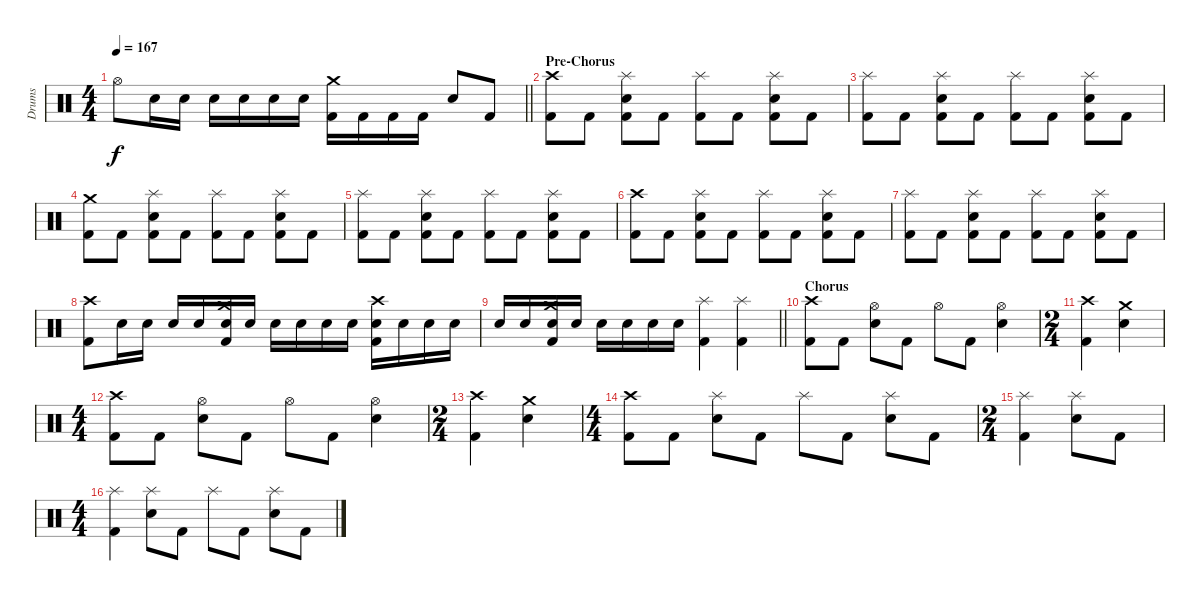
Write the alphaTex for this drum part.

\track ("Drums" "Drums") {instrument percussion}
\staff {score}
\articulation defaults
\ts (4 4)
\tempo 167
\clef neutral
\barLineRight lightlight
\ks c "Hi-Hat (open)".8{dy f} "Snare (hit) 2".16 "Snare (hit) 2".16 "Snare (hit) 2".16 "Snare (hit) 2".16 "Snare (hit) 2".16 "Snare (hit) 2".16
("Crash medium (hit)" "Kick (hit) 2").16 "Kick (hit) 2".16 "Kick (hit) 2".16 "Kick (hit) 2".16 "Snare (hit) 2".8 "Kick (hit) 2".8 |
\section ("" "Pre-Chorus")
("Crash high (hit)" "Kick (hit) 2").8 "Kick (hit) 2".8 ("Splash (hit)" "Snare (hit) 2" "Kick (hit) 2").8 "Kick (hit) 2".8 ("Splash (hit)" "Kick (hit) 2").8 "Kick (hit) 2".8 ("Splash (hit)" "Snare (hit) 2" "Kick (hit) 2").8 "Kick (hit) 2".8 |
("Splash (hit)" "Kick (hit) 2").8 "Kick (hit) 2".8 ("Splash (hit)" "Snare (hit) 2" "Kick (hit) 2").8 "Kick (hit) 2".8 ("Splash (hit)" "Kick (hit) 2").8 "Kick (hit) 2".8 ("Splash (hit)" "Snare (hit) 2" "Kick (hit) 2").8 "Kick (hit) 2".8 |
("Crash medium (hit)" "Kick (hit) 2").8 "Kick (hit) 2".8 ("Splash (hit)" "Snare (hit) 2" "Kick (hit) 2").8 "Kick (hit) 2".8 ("Splash (hit)" "Kick (hit) 2").8 "Kick (hit) 2".8 ("Splash (hit)" "Snare (hit) 2" "Kick (hit) 2").8 "Kick (hit) 2".8 |
("Splash (hit)" "Kick (hit) 2").8 "Kick (hit) 2".8 ("Splash (hit)" "Snare (hit) 2" "Kick (hit) 2").8 "Kick (hit) 2".8 ("Splash (hit)" "Kick (hit) 2").8 "Kick (hit) 2".8 ("Splash (hit)" "Snare (hit) 2" "Kick (hit) 2").8 "Kick (hit) 2".8 |
("Crash high (hit)" "Kick (hit) 2").8 "Kick (hit) 2".8 ("Splash (hit)" "Snare (hit) 2" "Kick (hit) 2").8 "Kick (hit) 2".8 ("Splash (hit)" "Kick (hit) 2").8 "Kick (hit) 2".8 ("Splash (hit)" "Snare (hit) 2" "Kick (hit) 2").8 "Kick (hit) 2".8 |
("Splash (hit)" "Kick (hit) 2").8 "Kick (hit) 2".8 ("Splash (hit)" "Snare (hit) 2" "Kick (hit) 2").8 "Kick (hit) 2".8 ("Splash (hit)" "Kick (hit) 2").8 "Kick (hit) 2".8 ("Splash (hit)" "Snare (hit) 2" "Kick (hit) 2").8 "Kick (hit) 2".8 |
("Crash high (hit)" "Kick (hit) 2").8 "Snare (hit) 2".16 "Snare (hit) 2".16 "Snare (hit) 2".16 "Snare (hit) 2".16 ("Crash medium (hit)" "Snare (hit) 2" "Kick (hit) 2").16 "Snare (hit) 2".16 "Snare (hit) 2".16 "Snare (hit) 2".16 "Snare (hit) 2".16 "Snare (hit) 2".16 ("Crash high (hit)" "Snare (hit) 2" "Kick (hit) 2").16 "Snare (hit) 2".16 "Snare (hit) 2".16 "Snare (hit) 2".16 |
\barLineRight lightlight "Snare (hit) 2".16 "Snare (hit) 2".16
("Crash medium (hit)" "Snare (hit) 2" "Kick (hit) 2").16 "Snare (hit) 2".16 "Snare (hit) 2".16 "Snare (hit) 2".16 "Snare (hit) 2".16 "Snare (hit) 2".16 ("Splash (hit)" "Kick (hit) 2").4 ("Splash (hit)" "Kick (hit) 2").4 |
\section ("" "Chorus")
("Crash high (hit)" "Kick (hit) 2").8 "Kick (hit) 2".8 ("Hi-Hat (open)" "Snare (hit) 2").8 "Kick (hit) 2".8 "Hi-Hat (open)".8 "Kick (hit) 2".8 ("Hi-Hat (open)" "Snare (hit) 2").4 |
\ts (2 4)
("Crash high (hit)" "Kick (hit) 2").4 ("Crash medium (hit)" "Snare (hit) 2").4 |
\ts (4 4)
("Crash high (hit)" "Kick (hit) 2").8 "Kick (hit) 2".8 ("Hi-Hat (open)" "Snare (hit) 2").8 "Kick (hit) 2".8 "Hi-Hat (open)".8 "Kick (hit) 2".8 ("Hi-Hat (open)" "Snare (hit) 2").4 |
\ts (2 4)
("Crash high (hit)" "Kick (hit) 2").4 ("Crash medium (hit)" "Snare (hit) 2").4 |
\ts (4 4)
("Crash high (hit)" "Kick (hit) 2").8 "Kick (hit) 2".8 ("Splash (hit)" "Snare (hit) 2").8 "Kick (hit) 2".8 "Splash (hit)".8 "Kick (hit) 2".8 ("Splash (hit)" "Snare (hit) 2").8 "Kick (hit) 2".8 |
\ts (2 4)
("Splash (hit)" "Kick (hit) 2").4 ("Splash (hit)" "Snare (hit) 2").8 "Kick (hit) 2".8 |
\ts (4 4)
("Splash (hit)" "Kick (hit) 2").4 ("Splash (hit)" "Snare (hit) 2").8 "Kick (hit) 2".8 "Splash (hit)".8 "Kick (hit) 2".8 ("Splash (hit)" "Snare (hit) 2").8 "Kick (hit) 2".8
